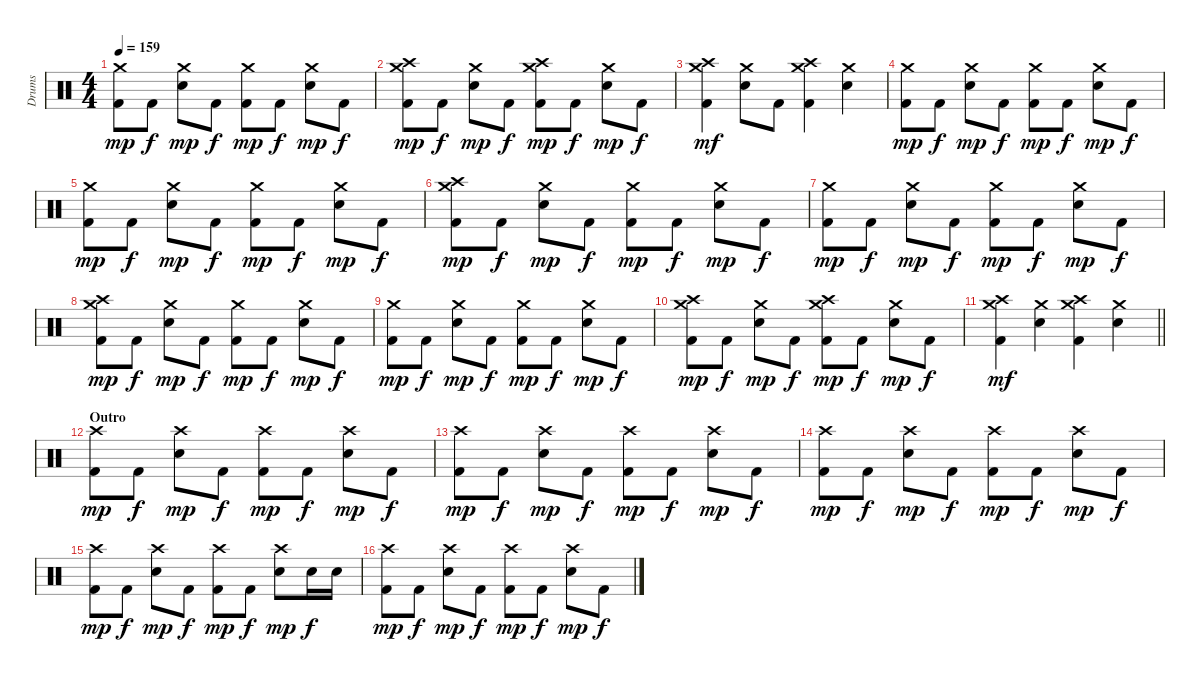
\track ("Drums" "Drums") {instrument percussion}
\staff {score}
\articulation defaults
\ts (4 4)
\tempo 159
\clef neutral
\ks c
("Crash medium (hit)" "Kick (hit) 2").8{dy mp} "Kick (hit) 2".8{dy f} ("Crash medium (hit)" "Electric Snare (hit)").8{dy mp} "Kick (hit) 2".8{dy f} ("Crash medium (hit)" "Kick (hit) 2").8{dy mp} "Kick (hit) 2".8{dy f} ("Crash medium (hit)" "Electric Snare (hit)").8{dy mp} "Kick (hit) 2".8{dy f} |
("Crash high (hit)" "Crash medium (hit)" "Kick (hit) 2").8{dy mp} "Kick (hit) 2".8{dy f} ("Crash medium (hit)" "Electric Snare (hit)").8{dy mp} "Kick (hit) 2".8{dy f} ("Crash high (hit)" "Crash medium (hit)" "Kick (hit) 2").8{dy mp} "Kick (hit) 2".8{dy f} ("Crash medium (hit)" "Electric Snare (hit)").8{dy mp} "Kick (hit) 2".8{dy f} |
("Crash high (hit)" "Crash medium (hit)" "Kick (hit) 2").4{dy mf} ("Crash medium (hit)" "Electric Snare (hit)").8 "Kick (hit) 2".8 ("Crash high (hit)" "Crash medium (hit)" "Kick (hit) 2").4 ("Crash medium (hit)" "Electric Snare (hit)").4 |
("Crash medium (hit)" "Kick (hit) 2").8{dy mp} "Kick (hit) 2".8{dy f} ("Crash medium (hit)" "Electric Snare (hit)").8{dy mp} "Kick (hit) 2".8{dy f} ("Crash medium (hit)" "Kick (hit) 2").8{dy mp} "Kick (hit) 2".8{dy f} ("Crash medium (hit)" "Electric Snare (hit)").8{dy mp} "Kick (hit) 2".8{dy f} |
("Crash medium (hit)" "Kick (hit) 2").8{dy mp} "Kick (hit) 2".8{dy f} ("Crash medium (hit)" "Electric Snare (hit)").8{dy mp} "Kick (hit) 2".8{dy f} ("Crash medium (hit)" "Kick (hit) 2").8{dy mp} "Kick (hit) 2".8{dy f} ("Crash medium (hit)" "Electric Snare (hit)").8{dy mp} "Kick (hit) 2".8{dy f} |
("Crash high (hit)" "Crash medium (hit)" "Kick (hit) 2").8{dy mp} "Kick (hit) 2".8{dy f} ("Crash medium (hit)" "Electric Snare (hit)").8{dy mp} "Kick (hit) 2".8{dy f} ("Crash medium (hit)" "Kick (hit) 2").8{dy mp} "Kick (hit) 2".8{dy f} ("Crash medium (hit)" "Electric Snare (hit)").8{dy mp} "Kick (hit) 2".8{dy f} |
("Crash medium (hit)" "Kick (hit) 2").8{dy mp} "Kick (hit) 2".8{dy f} ("Crash medium (hit)" "Electric Snare (hit)").8{dy mp} "Kick (hit) 2".8{dy f} ("Crash medium (hit)" "Kick (hit) 2").8{dy mp} "Kick (hit) 2".8{dy f} ("Crash medium (hit)" "Electric Snare (hit)").8{dy mp} "Kick (hit) 2".8{dy f} |
("Crash high (hit)" "Crash medium (hit)" "Kick (hit) 2").8{dy mp} "Kick (hit) 2".8{dy f} ("Crash medium (hit)" "Electric Snare (hit)").8{dy mp} "Kick (hit) 2".8{dy f} ("Crash medium (hit)" "Kick (hit) 2").8{dy mp} "Kick (hit) 2".8{dy f} ("Crash medium (hit)" "Electric Snare (hit)").8{dy mp} "Kick (hit) 2".8{dy f} |
("Crash medium (hit)" "Kick (hit) 2").8{dy mp} "Kick (hit) 2".8{dy f} ("Crash medium (hit)" "Electric Snare (hit)").8{dy mp} "Kick (hit) 2".8{dy f} ("Crash medium (hit)" "Kick (hit) 2").8{dy mp} "Kick (hit) 2".8{dy f} ("Crash medium (hit)" "Electric Snare (hit)").8{dy mp} "Kick (hit) 2".8{dy f} |
("Crash high (hit)" "Crash medium (hit)" "Kick (hit) 2").8{dy mp} "Kick (hit) 2".8{dy f} ("Crash medium (hit)" "Electric Snare (hit)").8{dy mp} "Kick (hit) 2".8{dy f} ("Crash high (hit)" "Crash medium (hit)" "Kick (hit) 2").8{dy mp} "Kick (hit) 2".8{dy f} ("Crash medium (hit)" "Electric Snare (hit)").8{dy mp} "Kick (hit) 2".8{dy f} |
\barLineRight lightlight
("Crash high (hit)" "Crash medium (hit)" "Kick (hit) 2").4{dy mf} ("Crash medium (hit)" "Electric Snare (hit)").4 ("Crash high (hit)" "Crash medium (hit)" "Kick (hit) 2").4 ("Crash medium (hit)" "Electric Snare (hit)").4 |
\section ("" "Outro")
("Crash high (hit)" "Kick (hit) 2").8{dy mp} "Kick (hit) 2".8{dy f} ("Crash high (hit)" "Electric Snare (hit)").8{dy mp} "Kick (hit) 2".8{dy f} ("Crash high (hit)" "Kick (hit) 2").8{dy mp} "Kick (hit) 2".8{dy f} ("Crash high (hit)" "Electric Snare (hit)").8{dy mp} "Kick (hit) 2".8{dy f} |
("Crash high (hit)" "Kick (hit) 2").8{dy mp} "Kick (hit) 2".8{dy f} ("Crash high (hit)" "Electric Snare (hit)").8{dy mp} "Kick (hit) 2".8{dy f} ("Crash high (hit)" "Kick (hit) 2").8{dy mp} "Kick (hit) 2".8{dy f} ("Crash high (hit)" "Electric Snare (hit)").8{dy mp} "Kick (hit) 2".8{dy f} |
("Crash high (hit)" "Kick (hit) 2").8{dy mp} "Kick (hit) 2".8{dy f} ("Crash high (hit)" "Electric Snare (hit)").8{dy mp} "Kick (hit) 2".8{dy f} ("Crash high (hit)" "Kick (hit) 2").8{dy mp} "Kick (hit) 2".8{dy f} ("Crash high (hit)" "Electric Snare (hit)").8{dy mp} "Kick (hit) 2".8{dy f} |
("Crash high (hit)" "Kick (hit) 2").8{dy mp} "Kick (hit) 2".8{dy f} ("Crash high (hit)" "Electric Snare (hit)").8{dy mp} "Kick (hit) 2".8{dy f} ("Crash high (hit)" "Kick (hit) 2").8{dy mp} "Kick (hit) 2".8{dy f} ("Crash high (hit)" "Electric Snare (hit)").8{dy mp} "Electric Snare (hit)".16{dy f} "Electric Snare (hit)".16 |
("Crash high (hit)" "Kick (hit) 2").8{dy mp} "Kick (hit) 2".8{dy f} ("Crash high (hit)" "Electric Snare (hit)").8{dy mp} "Kick (hit) 2".8{dy f} ("Crash high (hit)" "Kick (hit) 2").8{dy mp} "Kick (hit) 2".8{dy f} ("Crash high (hit)" "Electric Snare (hit)").8{dy mp} "Kick (hit) 2".8{dy f}
